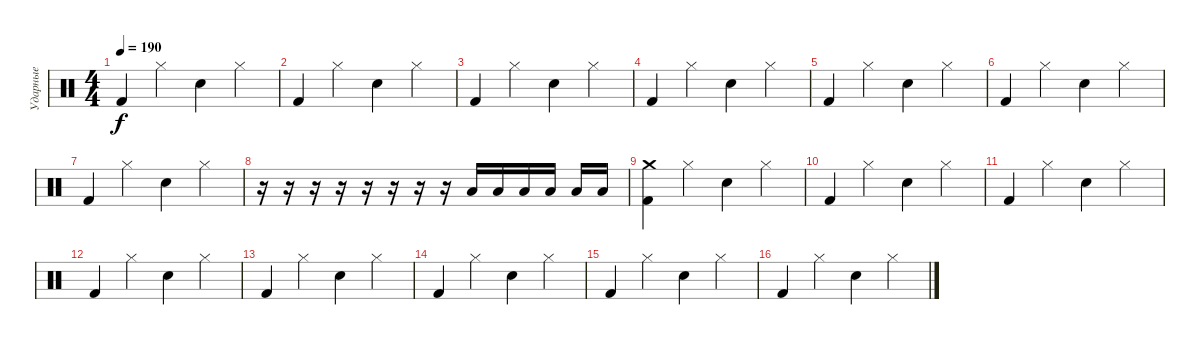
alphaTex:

\track ("Ударные" "Ударные") {instrument percussion}
\staff {score}
\articulation defaults
\ts (4 4)
\tempo 190
\clef neutral
\ks c "Kick (hit) 2".4{dy f} "Hi-Hat (closed)".4 "Snare (hit) 2".4 "Hi-Hat (closed)".4
|
"Kick (hit) 2".4 "Hi-Hat (closed)".4 "Snare (hit) 2".4 "Hi-Hat (closed)".4 |
"Kick (hit) 2".4 "Hi-Hat (closed)".4 "Snare (hit) 2".4 "Hi-Hat (closed)".4 |
"Kick (hit) 2".4 "Hi-Hat (closed)".4 "Snare (hit) 2".4 "Hi-Hat (closed)".4 |
"Kick (hit) 2".4 "Hi-Hat (closed)".4 "Snare (hit) 2".4 "Hi-Hat (closed)".4 |
"Kick (hit) 2".4 "Hi-Hat (closed)".4 "Snare (hit) 2".4 "Hi-Hat (closed)".4 |
"Kick (hit) 2".4 "Hi-Hat (closed)".4 "Snare (hit) 2".4 "Hi-Hat (closed)".4 |
r.16 r.16 r.16 r.16 r.16 r.16 r.16 r.16 "Low Floor Tom (hit)".16 "Low Floor Tom (hit)".16 "Low Floor Tom (hit)".16 "Low Floor Tom (hit)".16 "Low Floor Tom (hit)".16 "Low Floor Tom (hit)".16 |
("Kick (hit) 2" "Crash medium (hit)").4 "Hi-Hat (closed)".4 "Snare (hit) 2".4 "Hi-Hat (closed)".4 |
"Kick (hit) 2".4 "Hi-Hat (closed)".4 "Snare (hit) 2".4 "Hi-Hat (closed)".4 |
"Kick (hit) 2".4 "Hi-Hat (closed)".4 "Snare (hit) 2".4 "Hi-Hat (closed)".4 |
"Kick (hit) 2".4 "Hi-Hat (closed)".4 "Snare (hit) 2".4 "Hi-Hat (closed)".4 |
"Kick (hit) 2".4 "Hi-Hat (closed)".4 "Snare (hit) 2".4 "Hi-Hat (closed)".4 |
"Kick (hit) 2".4 "Hi-Hat (closed)".4 "Snare (hit) 2".4 "Hi-Hat (closed)".4 |
"Kick (hit) 2".4 "Hi-Hat (closed)".4 "Snare (hit) 2".4 "Hi-Hat (closed)".4 |
"Kick (hit) 2".4 "Hi-Hat (closed)".4 "Snare (hit) 2".4 "Hi-Hat (closed)".4
